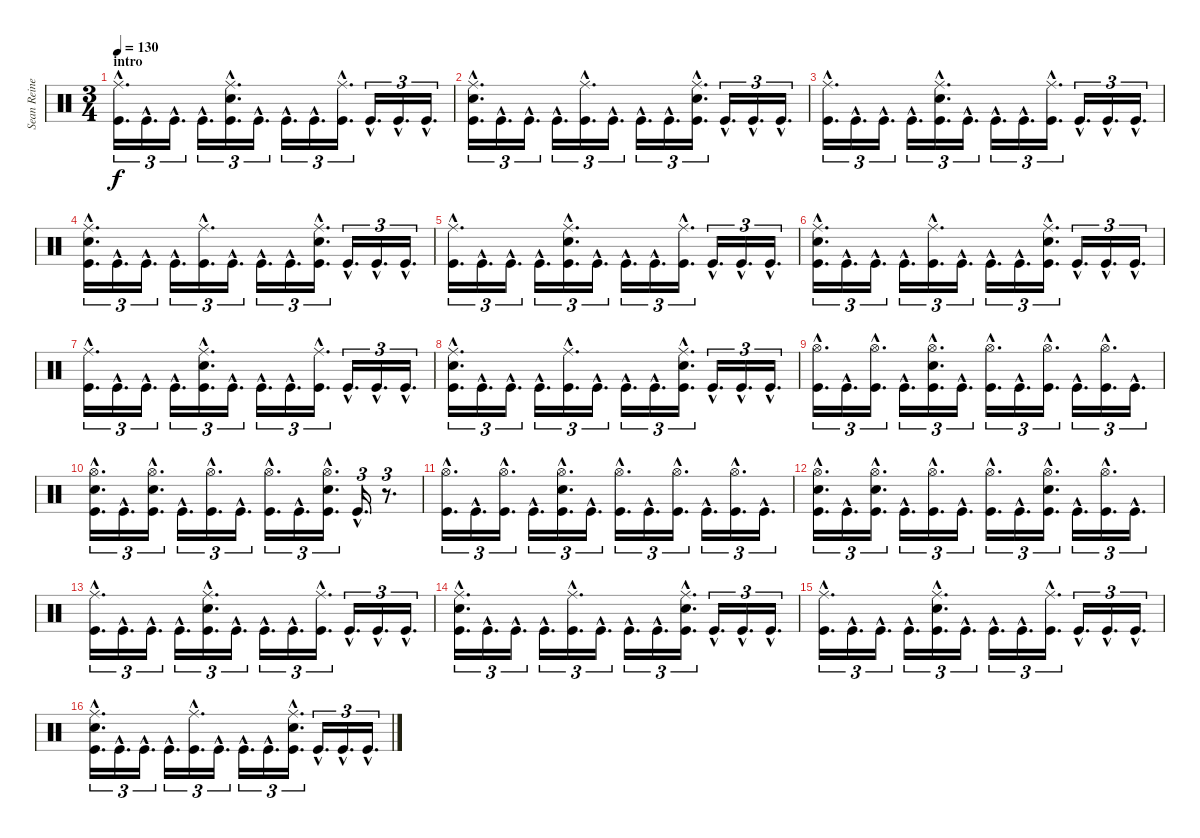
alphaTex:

\track ("Sean Reinert" "Sean Reine") {instrument percussion}
\staff {score}
\articulation defaults
\ts (3 4)
\section ("" "intro")
\tempo 130
\clef neutral
\ks c
("Ride (middle)"{hac} "Kick (hit)"{hac}).16{d tu (3 2) dy f} "Kick (hit)"{hac}.16{d tu (3 2)} "Kick (hit)"{hac}.16{d tu (3 2)} "Kick (hit)"{hac}.16{d tu (3 2)} ("Ride (middle)"{hac} "Snare (hit) 2"{hac} "Kick (hit)"{hac}).16{d tu (3 2)} "Kick (hit)"{hac}.16{d tu (3 2)} "Kick (hit)"{hac}.16{d tu (3 2)} "Kick (hit)"{hac}.16{d tu (3 2)} ("Ride (middle)"{hac} "Kick (hit)"{hac}).16{d tu (3 2)} "Kick (hit)"{hac}.16{d tu (3 2)} "Kick (hit)"{hac}.16{d tu (3 2)} "Kick (hit)"{hac}.16{d tu (3 2)} |
("Ride (middle)"{hac} "Snare (hit) 2"{hac} "Kick (hit)"{hac}).16{d tu (3 2)} "Kick (hit)"{hac}.16{d tu (3 2)} "Kick (hit)"{hac}.16{d tu (3 2)} "Kick (hit)"{hac}.16{d tu (3 2)} ("Ride (middle)"{hac} "Kick (hit)"{hac}).16{d tu (3 2)} "Kick (hit)"{hac}.16{d tu (3 2)} "Kick (hit)"{hac}.16{d tu (3 2)} "Kick (hit)"{hac}.16{d tu (3 2)} ("Ride (middle)"{hac} "Snare (hit) 2"{hac} "Kick (hit)"{hac}).16{d tu (3 2)} "Kick (hit)"{hac}.16{d tu (3 2)} "Kick (hit)"{hac}.16{d tu (3 2)} "Kick (hit)"{hac}.16{d tu (3 2)} |
("Ride (middle)"{hac} "Kick (hit)"{hac}).16{d tu (3 2)} "Kick (hit)"{hac}.16{d tu (3 2)} "Kick (hit)"{hac}.16{d tu (3 2)} "Kick (hit)"{hac}.16{d tu (3 2)} ("Ride (middle)"{hac} "Snare (hit) 2"{hac} "Kick (hit)"{hac}).16{d tu (3 2)} "Kick (hit)"{hac}.16{d tu (3 2)} "Kick (hit)"{hac}.16{d tu (3 2)} "Kick (hit)"{hac}.16{d tu (3 2)} ("Ride (middle)"{hac} "Kick (hit)"{hac}).16{d tu (3 2)} "Kick (hit)"{hac}.16{d tu (3 2)} "Kick (hit)"{hac}.16{d tu (3 2)} "Kick (hit)"{hac}.16{d tu (3 2)} |
("Ride (middle)"{hac} "Snare (hit) 2"{hac} "Kick (hit)"{hac}).16{d tu (3 2)} "Kick (hit)"{hac}.16{d tu (3 2)} "Kick (hit)"{hac}.16{d tu (3 2)} "Kick (hit)"{hac}.16{d tu (3 2)} ("Ride (middle)"{hac} "Kick (hit)"{hac}).16{d tu (3 2)} "Kick (hit)"{hac}.16{d tu (3 2)} "Kick (hit)"{hac}.16{d tu (3 2)} "Kick (hit)"{hac}.16{d tu (3 2)} ("Ride (middle)"{hac} "Snare (hit) 2"{hac} "Kick (hit)"{hac}).16{d tu (3 2)} "Kick (hit)"{hac}.16{d tu (3 2)} "Kick (hit)"{hac}.16{d tu (3 2)} "Kick (hit)"{hac}.16{d tu (3 2)} |
("Ride (middle)"{hac} "Kick (hit)"{hac}).16{d tu (3 2)} "Kick (hit)"{hac}.16{d tu (3 2)} "Kick (hit)"{hac}.16{d tu (3 2)} "Kick (hit)"{hac}.16{d tu (3 2)} ("Ride (middle)"{hac} "Snare (hit) 2"{hac} "Kick (hit)"{hac}).16{d tu (3 2)} "Kick (hit)"{hac}.16{d tu (3 2)} "Kick (hit)"{hac}.16{d tu (3 2)} "Kick (hit)"{hac}.16{d tu (3 2)} ("Ride (middle)"{hac} "Kick (hit)"{hac}).16{d tu (3 2)} "Kick (hit)"{hac}.16{d tu (3 2)} "Kick (hit)"{hac}.16{d tu (3 2)} "Kick (hit)"{hac}.16{d tu (3 2)} |
("Ride (middle)"{hac} "Snare (hit) 2"{hac} "Kick (hit)"{hac}).16{d tu (3 2)} "Kick (hit)"{hac}.16{d tu (3 2)} "Kick (hit)"{hac}.16{d tu (3 2)} "Kick (hit)"{hac}.16{d tu (3 2)} ("Ride (middle)"{hac} "Kick (hit)"{hac}).16{d tu (3 2)} "Kick (hit)"{hac}.16{d tu (3 2)} "Kick (hit)"{hac}.16{d tu (3 2)} "Kick (hit)"{hac}.16{d tu (3 2)} ("Ride (middle)"{hac} "Snare (hit) 2"{hac} "Kick (hit)"{hac}).16{d tu (3 2)} "Kick (hit)"{hac}.16{d tu (3 2)} "Kick (hit)"{hac}.16{d tu (3 2)} "Kick (hit)"{hac}.16{d tu (3 2)} |
("Ride (middle)"{hac} "Kick (hit)"{hac}).16{d tu (3 2)} "Kick (hit)"{hac}.16{d tu (3 2)} "Kick (hit)"{hac}.16{d tu (3 2)} "Kick (hit)"{hac}.16{d tu (3 2)} ("Ride (middle)"{hac} "Snare (hit) 2"{hac} "Kick (hit)"{hac}).16{d tu (3 2)} "Kick (hit)"{hac}.16{d tu (3 2)} "Kick (hit)"{hac}.16{d tu (3 2)} "Kick (hit)"{hac}.16{d tu (3 2)} ("Ride (middle)"{hac} "Kick (hit)"{hac}).16{d tu (3 2)} "Kick (hit)"{hac}.16{d tu (3 2)} "Kick (hit)"{hac}.16{d tu (3 2)} "Kick (hit)"{hac}.16{d tu (3 2)} |
("Ride (middle)"{hac} "Snare (hit) 2"{hac} "Kick (hit)"{hac}).16{d tu (3 2)} "Kick (hit)"{hac}.16{d tu (3 2)} "Kick (hit)"{hac}.16{d tu (3 2)} "Kick (hit)"{hac}.16{d tu (3 2)} ("Ride (middle)"{hac} "Kick (hit)"{hac}).16{d tu (3 2)} "Kick (hit)"{hac}.16{d tu (3 2)} "Kick (hit)"{hac}.16{d tu (3 2)} "Kick (hit)"{hac}.16{d tu (3 2)} ("Ride (middle)"{hac} "Snare (hit) 2"{hac} "Kick (hit)"{hac}).16{d tu (3 2)} "Kick (hit)"{hac}.16{d tu (3 2)} "Kick (hit)"{hac}.16{d tu (3 2)} "Kick (hit)"{hac}.16{d tu (3 2)} |
("Hi-Hat (open)"{hac} "Kick (hit)"{hac}).16{d tu (3 2)} "Kick (hit)"{hac}.16{d tu (3 2)} ("Hi-Hat (open)"{hac} "Kick (hit)"{hac}).16{d tu (3 2)} "Kick (hit)"{hac}.16{d tu (3 2)} ("Hi-Hat (open)"{hac} "Snare (hit) 2"{hac} "Kick (hit)"{hac}).16{d tu (3 2)} "Kick (hit)"{hac}.16{d tu (3 2)} ("Hi-Hat (open)"{hac} "Kick (hit)"{hac}).16{d tu (3 2)} "Kick (hit)"{hac}.16{d tu (3 2)} ("Hi-Hat (open)"{hac} "Kick (hit)"{hac}).16{d tu (3 2)} "Kick (hit)"{hac}.16{d tu (3 2)} ("Hi-Hat (open)"{hac} "Kick (hit)"{hac}).16{d tu (3 2)} "Kick (hit)"{hac}.16{d tu (3 2)} |
("Hi-Hat (open)"{hac} "Snare (hit) 2"{hac} "Kick (hit)"{hac}).16{d tu (3 2)} "Kick (hit)"{hac}.16{d tu (3 2)} ("Hi-Hat (open)"{hac} "Snare (hit) 2"{hac} "Kick (hit)"{hac}).16{d tu (3 2)} "Kick (hit)"{hac}.16{d tu (3 2)} ("Hi-Hat (open)"{hac} "Kick (hit)"{hac}).16{d tu (3 2)} "Kick (hit)"{hac}.16{d tu (3 2)} ("Hi-Hat (open)"{hac} "Kick (hit)"{hac}).16{d tu (3 2)} "Kick (hit)"{hac}.16{d tu (3 2)} ("Hi-Hat (open)"{hac} "Snare (hit) 2"{hac} "Kick (hit)"{hac}).16{d tu (3 2)} "Kick (hit)"{hac}.16{d tu (3 2)} r.8{d tu (3 2)} |
("Hi-Hat (open)"{hac} "Kick (hit)"{hac}).16{d tu (3 2)} "Kick (hit)"{hac}.16{d tu (3 2)} ("Hi-Hat (open)"{hac} "Kick (hit)"{hac}).16{d tu (3 2)} "Kick (hit)"{hac}.16{d tu (3 2)} ("Hi-Hat (open)"{hac} "Snare (hit) 2"{hac} "Kick (hit)"{hac}).16{d tu (3 2)} "Kick (hit)"{hac}.16{d tu (3 2)} ("Hi-Hat (open)"{hac} "Kick (hit)"{hac}).16{d tu (3 2)} "Kick (hit)"{hac}.16{d tu (3 2)} ("Hi-Hat (open)"{hac} "Kick (hit)"{hac}).16{d tu (3 2)} "Kick (hit)"{hac}.16{d tu (3 2)} ("Hi-Hat (open)"{hac} "Kick (hit)"{hac}).16{d tu (3 2)} "Kick (hit)"{hac}.16{d tu (3 2)} |
("Hi-Hat (open)"{hac} "Snare (hit) 2"{hac} "Kick (hit)"{hac}).16{d tu (3 2)} "Kick (hit)"{hac}.16{d tu (3 2)} ("Hi-Hat (open)"{hac} "Snare (hit) 2"{hac} "Kick (hit)"{hac}).16{d tu (3 2)} "Kick (hit)"{hac}.16{d tu (3 2)} ("Hi-Hat (open)"{hac} "Kick (hit)"{hac}).16{d tu (3 2)} "Kick (hit)"{hac}.16{d tu (3 2)} ("Hi-Hat (open)"{hac} "Kick (hit)"{hac}).16{d tu (3 2)} "Kick (hit)"{hac}.16{d tu (3 2)} ("Hi-Hat (open)"{hac} "Snare (hit) 2"{hac} "Kick (hit)"{hac}).16{d tu (3 2)} "Kick (hit)"{hac}.16{d tu (3 2)} ("Hi-Hat (open)"{hac} "Kick (hit)"{hac}).16{d tu (3 2)} "Kick (hit)"{hac}.16{d tu (3 2)} |
("Ride (middle)"{hac} "Kick (hit)"{hac}).16{d tu (3 2)} "Kick (hit)"{hac}.16{d tu (3 2)} "Kick (hit)"{hac}.16{d tu (3 2)} "Kick (hit)"{hac}.16{d tu (3 2)} ("Ride (middle)"{hac} "Snare (hit) 2"{hac} "Kick (hit)"{hac}).16{d tu (3 2)} "Kick (hit)"{hac}.16{d tu (3 2)} "Kick (hit)"{hac}.16{d tu (3 2)} "Kick (hit)"{hac}.16{d tu (3 2)} ("Ride (middle)"{hac} "Kick (hit)"{hac}).16{d tu (3 2)} "Kick (hit)"{hac}.16{d tu (3 2)} "Kick (hit)"{hac}.16{d tu (3 2)} "Kick (hit)"{hac}.16{d tu (3 2)} |
("Ride (middle)"{hac} "Snare (hit) 2"{hac} "Kick (hit)"{hac}).16{d tu (3 2)} "Kick (hit)"{hac}.16{d tu (3 2)} "Kick (hit)"{hac}.16{d tu (3 2)} "Kick (hit)"{hac}.16{d tu (3 2)} ("Ride (middle)"{hac} "Kick (hit)"{hac}).16{d tu (3 2)} "Kick (hit)"{hac}.16{d tu (3 2)} "Kick (hit)"{hac}.16{d tu (3 2)} "Kick (hit)"{hac}.16{d tu (3 2)} ("Ride (middle)"{hac} "Snare (hit) 2"{hac} "Kick (hit)"{hac}).16{d tu (3 2)} "Kick (hit)"{hac}.16{d tu (3 2)} "Kick (hit)"{hac}.16{d tu (3 2)} "Kick (hit)"{hac}.16{d tu (3 2)} |
("Ride (middle)"{hac} "Kick (hit)"{hac}).16{d tu (3 2)} "Kick (hit)"{hac}.16{d tu (3 2)} "Kick (hit)"{hac}.16{d tu (3 2)} "Kick (hit)"{hac}.16{d tu (3 2)} ("Ride (middle)"{hac} "Snare (hit) 2"{hac} "Kick (hit)"{hac}).16{d tu (3 2)} "Kick (hit)"{hac}.16{d tu (3 2)} "Kick (hit)"{hac}.16{d tu (3 2)} "Kick (hit)"{hac}.16{d tu (3 2)} ("Ride (middle)"{hac} "Kick (hit)"{hac}).16{d tu (3 2)} "Kick (hit)"{hac}.16{d tu (3 2)} "Kick (hit)"{hac}.16{d tu (3 2)} "Kick (hit)"{hac}.16{d tu (3 2)} |
("Ride (middle)"{hac} "Snare (hit) 2"{hac} "Kick (hit)"{hac}).16{d tu (3 2)} "Kick (hit)"{hac}.16{d tu (3 2)} "Kick (hit)"{hac}.16{d tu (3 2)} "Kick (hit)"{hac}.16{d tu (3 2)} ("Ride (middle)"{hac} "Kick (hit)"{hac}).16{d tu (3 2)} "Kick (hit)"{hac}.16{d tu (3 2)} "Kick (hit)"{hac}.16{d tu (3 2)} "Kick (hit)"{hac}.16{d tu (3 2)} ("Ride (middle)"{hac} "Snare (hit) 2"{hac} "Kick (hit)"{hac}).16{d tu (3 2)} "Kick (hit)"{hac}.16{d tu (3 2)} "Kick (hit)"{hac}.16{d tu (3 2)} "Kick (hit)"{hac}.16{d tu (3 2)}
